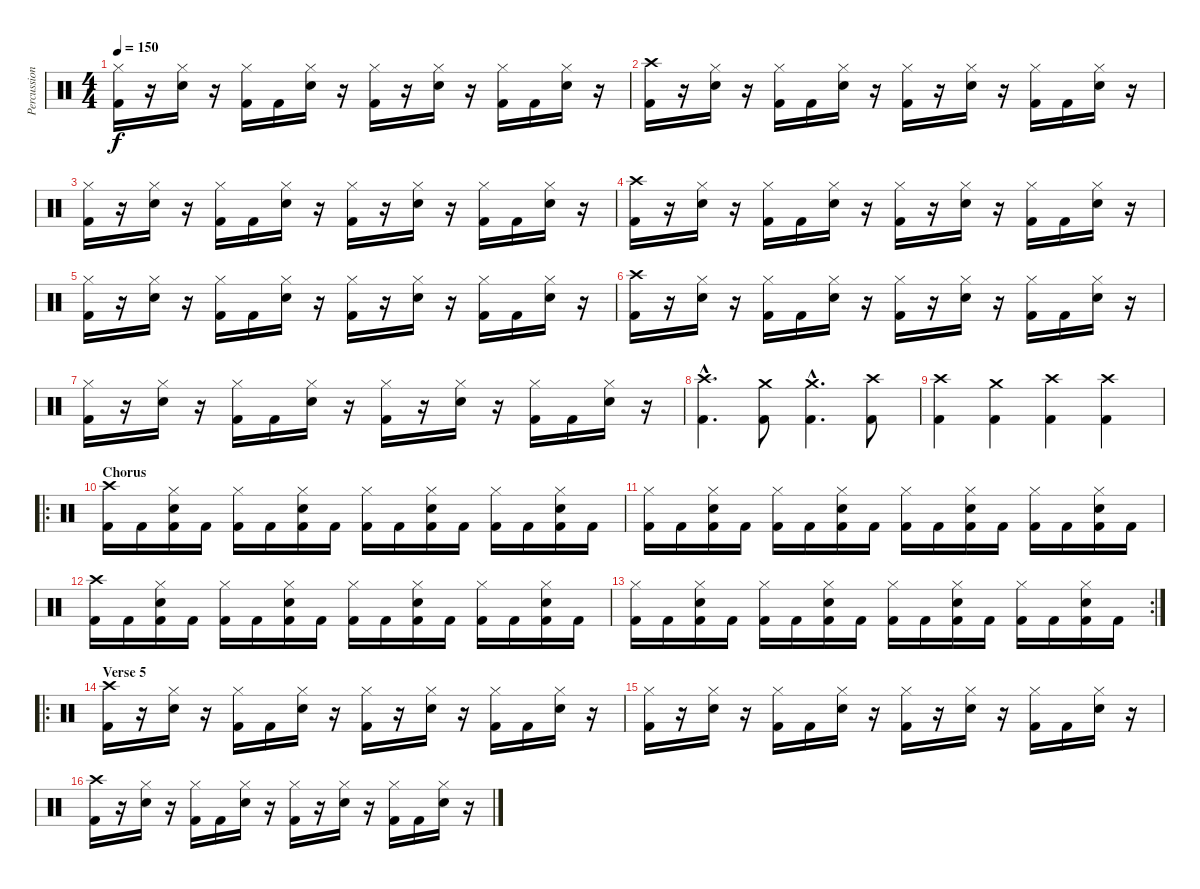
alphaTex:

\track ("Percussion" "Percussion") {instrument percussion}
\staff {score}
\articulation defaults
\ts (4 4)
\tempo 150
\clef neutral
\ks c
("Hi-Hat (closed)" "Kick (hit) 2").16{dy f} r.16 ("Hi-Hat (closed)" "Snare (hit) 2").16 r.16 ("Hi-Hat (closed)" "Kick (hit) 2").16 "Kick (hit) 2".16 ("Hi-Hat (closed)" "Snare (hit) 2").16 r.16 ("Hi-Hat (closed)" "Kick (hit) 2").16 r.16 ("Hi-Hat (closed)" "Snare (hit) 2").16 r.16 ("Hi-Hat (closed)" "Kick (hit) 2").16 "Kick (hit) 2".16 ("Hi-Hat (closed)" "Snare (hit) 2").16 r.16 |
("Crash high (hit)" "Kick (hit) 2").16 r.16 ("Hi-Hat (closed)" "Snare (hit) 2").16 r.16 ("Hi-Hat (closed)" "Kick (hit) 2").16 "Kick (hit) 2".16 ("Hi-Hat (closed)" "Snare (hit) 2").16 r.16 ("Hi-Hat (closed)" "Kick (hit) 2").16 r.16 ("Hi-Hat (closed)" "Snare (hit) 2").16 r.16 ("Hi-Hat (closed)" "Kick (hit) 2").16 "Kick (hit) 2".16 ("Hi-Hat (closed)" "Snare (hit) 2").16 r.16 |
("Hi-Hat (closed)" "Kick (hit) 2").16 r.16 ("Hi-Hat (closed)" "Snare (hit) 2").16 r.16 ("Hi-Hat (closed)" "Kick (hit) 2").16 "Kick (hit) 2".16 ("Hi-Hat (closed)" "Snare (hit) 2").16 r.16 ("Hi-Hat (closed)" "Kick (hit) 2").16 r.16 ("Hi-Hat (closed)" "Snare (hit) 2").16 r.16 ("Hi-Hat (closed)" "Kick (hit) 2").16 "Kick (hit) 2".16 ("Hi-Hat (closed)" "Snare (hit) 2").16 r.16 |
("Crash high (hit)" "Kick (hit) 2").16 r.16 ("Hi-Hat (closed)" "Snare (hit) 2").16 r.16 ("Hi-Hat (closed)" "Kick (hit) 2").16 "Kick (hit) 2".16 ("Hi-Hat (closed)" "Snare (hit) 2").16 r.16 ("Hi-Hat (closed)" "Kick (hit) 2").16 r.16 ("Hi-Hat (closed)" "Snare (hit) 2").16 r.16 ("Hi-Hat (closed)" "Kick (hit) 2").16 "Kick (hit) 2".16 ("Hi-Hat (closed)" "Snare (hit) 2").16 r.16 |
("Hi-Hat (closed)" "Kick (hit) 2").16 r.16 ("Hi-Hat (closed)" "Snare (hit) 2").16 r.16 ("Hi-Hat (closed)" "Kick (hit) 2").16 "Kick (hit) 2".16 ("Hi-Hat (closed)" "Snare (hit) 2").16 r.16 ("Hi-Hat (closed)" "Kick (hit) 2").16 r.16 ("Hi-Hat (closed)" "Snare (hit) 2").16 r.16 ("Hi-Hat (closed)" "Kick (hit) 2").16 "Kick (hit) 2".16 ("Hi-Hat (closed)" "Snare (hit) 2").16 r.16 |
("Crash high (hit)" "Kick (hit) 2").16 r.16 ("Hi-Hat (closed)" "Snare (hit) 2").16 r.16 ("Hi-Hat (closed)" "Kick (hit) 2").16 "Kick (hit) 2".16 ("Hi-Hat (closed)" "Snare (hit) 2").16 r.16 ("Hi-Hat (closed)" "Kick (hit) 2").16 r.16 ("Hi-Hat (closed)" "Snare (hit) 2").16 r.16 ("Hi-Hat (closed)" "Kick (hit) 2").16 "Kick (hit) 2".16 ("Hi-Hat (closed)" "Snare (hit) 2").16 r.16 |
("Hi-Hat (closed)" "Kick (hit) 2").16 r.16 ("Hi-Hat (closed)" "Snare (hit) 2").16 r.16 ("Hi-Hat (closed)" "Kick (hit) 2").16 "Kick (hit) 2".16 ("Hi-Hat (closed)" "Snare (hit) 2").16 r.16 ("Hi-Hat (closed)" "Kick (hit) 2").16 r.16 ("Hi-Hat (closed)" "Snare (hit) 2").16 r.16 ("Hi-Hat (closed)" "Kick (hit) 2").16 "Kick (hit) 2".16 ("Hi-Hat (closed)" "Snare (hit) 2").16 r.16 |
("Crash high (hit)"{hac} "Kick (hit) 2"{hac}).4{d} ("Crash medium (hit)" "Kick (hit) 2").8 ("Crash medium (hit)"{hac} "Kick (hit) 2"{hac}).4{d} ("Crash high (hit)" "Kick (hit) 2").8 |
("Crash high (hit)" "Kick (hit) 2").4 ("Crash medium (hit)" "Kick (hit) 2").4 ("Crash high (hit)" "Kick (hit) 2").4 ("Crash high (hit)" "Kick (hit) 2").4 |
\ro
\section ("" "Chorus")
("Crash high (hit)" "Kick (hit) 2").16 "Kick (hit) 2".16 ("Hi-Hat (closed)" "Snare (hit) 2" "Kick (hit) 2").16 "Kick (hit) 2".16 ("Hi-Hat (closed)" "Kick (hit) 2").16 "Kick (hit) 2".16 ("Hi-Hat (closed)" "Snare (hit) 2" "Kick (hit) 2").16 "Kick (hit) 2".16 ("Hi-Hat (closed)" "Kick (hit) 2").16 "Kick (hit) 2".16 ("Hi-Hat (closed)" "Snare (hit) 2" "Kick (hit) 2").16 "Kick (hit) 2".16 ("Hi-Hat (closed)" "Kick (hit) 2").16 "Kick (hit) 2".16 ("Hi-Hat (closed)" "Snare (hit) 2" "Kick (hit) 2").16 "Kick (hit) 2".16 |
("Hi-Hat (closed)" "Kick (hit) 2").16 "Kick (hit) 2".16 ("Hi-Hat (closed)" "Snare (hit) 2" "Kick (hit) 2").16 "Kick (hit) 2".16 ("Hi-Hat (closed)" "Kick (hit) 2").16 "Kick (hit) 2".16 ("Hi-Hat (closed)" "Snare (hit) 2" "Kick (hit) 2").16 "Kick (hit) 2".16 ("Hi-Hat (closed)" "Kick (hit) 2").16 "Kick (hit) 2".16 ("Hi-Hat (closed)" "Snare (hit) 2" "Kick (hit) 2").16 "Kick (hit) 2".16 ("Hi-Hat (closed)" "Kick (hit) 2").16 "Kick (hit) 2".16 ("Hi-Hat (closed)" "Snare (hit) 2" "Kick (hit) 2").16 "Kick (hit) 2".16 |
("Crash high (hit)" "Kick (hit) 2").16 "Kick (hit) 2".16 ("Hi-Hat (closed)" "Snare (hit) 2" "Kick (hit) 2").16 "Kick (hit) 2".16 ("Hi-Hat (closed)" "Kick (hit) 2").16 "Kick (hit) 2".16 ("Hi-Hat (closed)" "Snare (hit) 2" "Kick (hit) 2").16 "Kick (hit) 2".16 ("Hi-Hat (closed)" "Kick (hit) 2").16 "Kick (hit) 2".16 ("Hi-Hat (closed)" "Snare (hit) 2" "Kick (hit) 2").16 "Kick (hit) 2".16 ("Hi-Hat (closed)" "Kick (hit) 2").16 "Kick (hit) 2".16 ("Hi-Hat (closed)" "Snare (hit) 2" "Kick (hit) 2").16 "Kick (hit) 2".16 |
\rc 2
("Hi-Hat (closed)" "Kick (hit) 2").16 "Kick (hit) 2".16 ("Hi-Hat (closed)" "Snare (hit) 2" "Kick (hit) 2").16 "Kick (hit) 2".16 ("Hi-Hat (closed)" "Kick (hit) 2").16 "Kick (hit) 2".16 ("Hi-Hat (closed)" "Snare (hit) 2" "Kick (hit) 2").16 "Kick (hit) 2".16 ("Hi-Hat (closed)" "Kick (hit) 2").16 "Kick (hit) 2".16 ("Hi-Hat (closed)" "Snare (hit) 2" "Kick (hit) 2").16 "Kick (hit) 2".16 ("Hi-Hat (closed)" "Kick (hit) 2").16 "Kick (hit) 2".16 ("Hi-Hat (closed)" "Snare (hit) 2" "Kick (hit) 2").16 "Kick (hit) 2".16 |
\ro
\section ("" "Verse 5")
("Crash high (hit)" "Kick (hit) 2").16 r.16 ("Hi-Hat (closed)" "Snare (hit) 2").16 r.16 ("Hi-Hat (closed)" "Kick (hit) 2").16 "Kick (hit) 2".16 ("Hi-Hat (closed)" "Snare (hit) 2").16 r.16 ("Hi-Hat (closed)" "Kick (hit) 2").16 r.16 ("Hi-Hat (closed)" "Snare (hit) 2").16 r.16 ("Hi-Hat (closed)" "Kick (hit) 2").16 "Kick (hit) 2".16 ("Hi-Hat (closed)" "Snare (hit) 2").16 r.16 |
("Hi-Hat (closed)" "Kick (hit) 2").16 r.16 ("Hi-Hat (closed)" "Snare (hit) 2").16 r.16 ("Hi-Hat (closed)" "Kick (hit) 2").16 "Kick (hit) 2".16 ("Hi-Hat (closed)" "Snare (hit) 2").16 r.16 ("Hi-Hat (closed)" "Kick (hit) 2").16 r.16 ("Hi-Hat (closed)" "Snare (hit) 2").16 r.16 ("Hi-Hat (closed)" "Kick (hit) 2").16 "Kick (hit) 2".16 ("Hi-Hat (closed)" "Snare (hit) 2").16 r.16 |
("Crash high (hit)" "Kick (hit) 2").16 r.16 ("Hi-Hat (closed)" "Snare (hit) 2").16 r.16 ("Hi-Hat (closed)" "Kick (hit) 2").16 "Kick (hit) 2".16 ("Hi-Hat (closed)" "Snare (hit) 2").16 r.16 ("Hi-Hat (closed)" "Kick (hit) 2").16 r.16 ("Hi-Hat (closed)" "Snare (hit) 2").16 r.16 ("Hi-Hat (closed)" "Kick (hit) 2").16 "Kick (hit) 2".16 ("Hi-Hat (closed)" "Snare (hit) 2").16 r.16
